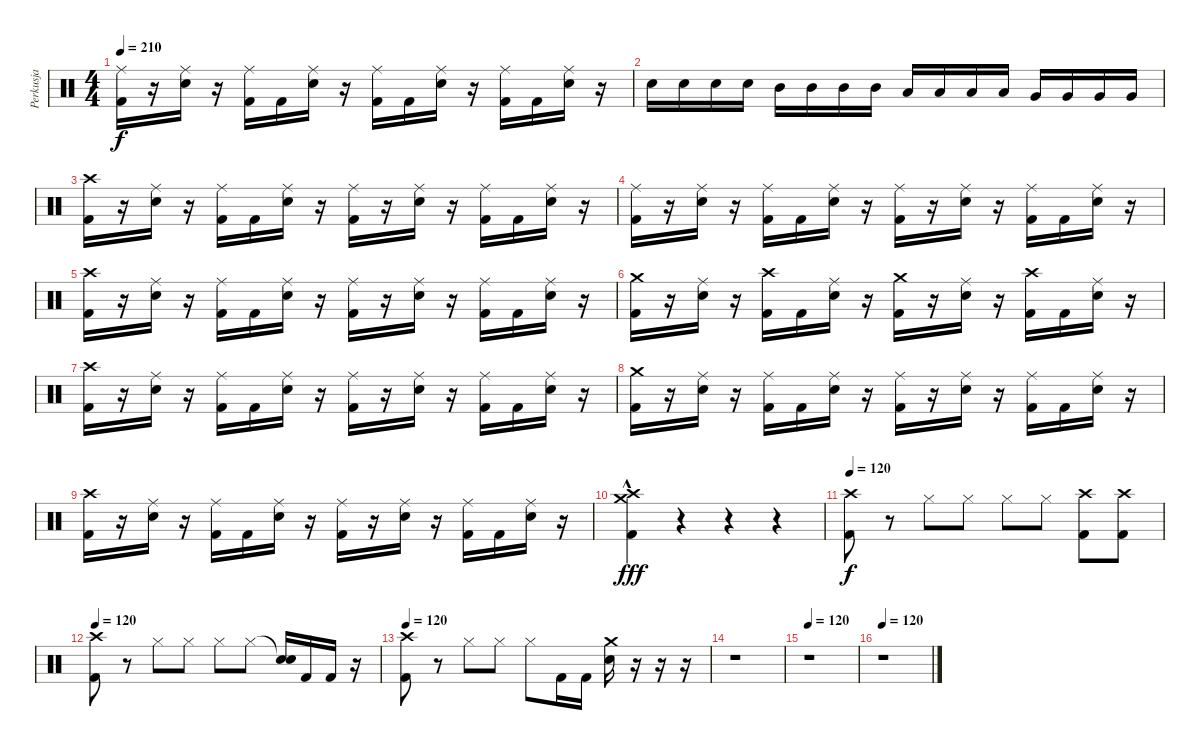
\track ("Perkusja" "Perkusja") {instrument percussion}
\staff {score}
\articulation defaults
\ts (4 4)
\tempo 210
\clef neutral
\ks c
("Ride (middle)" "Kick (hit) 2").16{dy f} r.16 ("Ride (middle)" "Snare (hit) 2").16 r.16 ("Ride (middle)" "Kick (hit) 2").16 "Kick (hit) 2".16 ("Ride (middle)" "Snare (hit) 2").16 r.16 ("Ride (middle)" "Kick (hit) 2").16 "Kick (hit) 2".16 ("Ride (middle)" "Snare (hit) 2").16 r.16 ("Ride (middle)" "Kick (hit) 2").16 "Kick (hit) 2".16 ("Ride (middle)" "Snare (hit) 2").16 r.16 |
"Snare (hit) 2".16 "Snare (hit) 2".16 "Snare (hit) 2".16 "Snare (hit) 2".16 "Mid Tom (hit)".16 "Mid Tom (hit)".16 "Mid Tom (hit)".16 "Mid Tom (hit)".16 "Low Tom (hit)".16 "Low Tom (hit)".16 "Low Tom (hit)".16 "Low Tom (hit)".16 "Very Low Tom (hit)".16 "Very Low Tom (hit)".16 "Very Low Tom (hit)".16 "Very Low Tom (hit)".16 |
("Crash high (hit)" "Kick (hit) 2").16 r.16 ("Ride (middle)" "Snare (hit) 2").16 r.16 ("Ride (middle)" "Kick (hit) 2").16 "Kick (hit) 2".16 ("Ride (middle)" "Snare (hit) 2").16 r.16 ("Ride (middle)" "Kick (hit) 2").16 r.16 ("Ride (middle)" "Snare (hit) 2").16 r.16 ("Ride (middle)" "Kick (hit) 2").16 "Kick (hit) 2".16 ("Ride (middle)" "Snare (hit) 2").16 r.16 |
("Ride (middle)" "Kick (hit) 2").16 r.16 ("Ride (middle)" "Snare (hit) 2").16 r.16 ("Ride (middle)" "Kick (hit) 2").16 "Kick (hit) 2".16 ("Ride (middle)" "Snare (hit) 2").16 r.16 ("Ride (middle)" "Kick (hit) 2").16 r.16 ("Ride (middle)" "Snare (hit) 2").16 r.16 ("Ride (middle)" "Kick (hit) 2").16 "Kick (hit) 2".16 ("Ride (middle)" "Snare (hit) 2").16 r.16 |
("Crash high (hit)" "Kick (hit) 2").16 r.16 ("Ride (middle)" "Snare (hit) 2").16 r.16 ("Ride (middle)" "Kick (hit) 2").16 "Kick (hit) 2".16 ("Ride (middle)" "Snare (hit) 2").16 r.16 ("Ride (middle)" "Kick (hit) 2").16 r.16 ("Ride (middle)" "Snare (hit) 2").16 r.16 ("Ride (middle)" "Kick (hit) 2").16 "Kick (hit) 2".16 ("Ride (middle)" "Snare (hit) 2").16 r.16 |
("Crash medium (hit)" "Kick (hit) 2").16 r.16 ("Ride (middle)" "Snare (hit) 2").16 r.16 ("Crash high (hit)" "Kick (hit) 2").16 "Kick (hit) 2".16 ("Ride (middle)" "Snare (hit) 2").16 r.16 ("Crash medium (hit)" "Kick (hit) 2").16 r.16 ("Ride (middle)" "Snare (hit) 2").16 r.16 ("Crash high (hit)" "Kick (hit) 2").16 "Kick (hit) 2".16 ("Ride (middle)" "Snare (hit) 2").16 r.16 |
("Crash high (hit)" "Kick (hit) 2").16 r.16 ("Ride (middle)" "Snare (hit) 2").16 r.16 ("Ride (middle)" "Kick (hit) 2").16 "Kick (hit) 2".16 ("Ride (middle)" "Snare (hit) 2").16 r.16 ("Ride (middle)" "Kick (hit) 2").16 r.16 ("Ride (middle)" "Snare (hit) 2").16 r.16 ("Ride (middle)" "Kick (hit) 2").16 "Kick (hit) 2".16 ("Ride (middle)" "Snare (hit) 2").16 r.16 |
("Crash medium (hit)" "Kick (hit) 2").16 r.16 ("Ride (middle)" "Snare (hit) 2").16 r.16 ("Ride (middle)" "Kick (hit) 2").16 "Kick (hit) 2".16 ("Ride (middle)" "Snare (hit) 2").16 r.16 ("Ride (middle)" "Kick (hit) 2").16 r.16 ("Ride (middle)" "Snare (hit) 2").16 r.16 ("Ride (middle)" "Kick (hit) 2").16 "Kick (hit) 2".16 ("Ride (middle)" "Snare (hit) 2").16 r.16 |
("Crash high (hit)" "Kick (hit) 2").16 r.16 ("Ride (middle)" "Snare (hit) 2").16 r.16 ("Ride (middle)" "Kick (hit) 2").16 "Kick (hit) 2".16 ("Ride (middle)" "Snare (hit) 2").16 r.16 ("Ride (middle)" "Kick (hit) 2").16 r.16 ("Ride (middle)" "Snare (hit) 2").16 r.16 ("Ride (middle)" "Kick (hit) 2").16 "Kick (hit) 2".16 ("Ride (middle)" "Snare (hit) 2").16 r.16 |
("Crash high (hit)"{hac} "Crash medium (hit)"{hac} "Kick (hit) 2").4{dy fff} r.4 r.4 r.4 |
\tempo 120
("Crash high (hit)" "Kick (hit) 2").8{dy f} r.8 "Hi-Hat (closed)".8 "Hi-Hat (closed)".8 "Hi-Hat (closed)".8 "Hi-Hat (closed)".8 ("Crash high (hit)" "Kick (hit) 2").8 ("Crash high (hit)" "Kick (hit) 2").8 |
\tempo 120
("Crash high (hit)" "Kick (hit) 2").8 r.8 "Hi-Hat (closed)".8 "Hi-Hat (closed)".8 "Hi-Hat (closed)".8 "Hi-Hat (closed)".8 ("Snare (hit)"{t} "Snare (hit) 2").16 "Kick (hit) 2".16 "Kick (hit) 2".16 r.16 |
\tempo 120
("Crash high (hit)" "Kick (hit) 2").8 r.8 "Hi-Hat (closed)".8 "Hi-Hat (closed)".8 "Hi-Hat (closed)".8 "Kick (hit) 2".16 "Kick (hit) 2".16 ("Crash medium (hit)" "Snare (hit) 2").16 r.16 r.16 r.16 |
r.1 |
\tempo 120
r.1 |
\tempo 120
r.1
